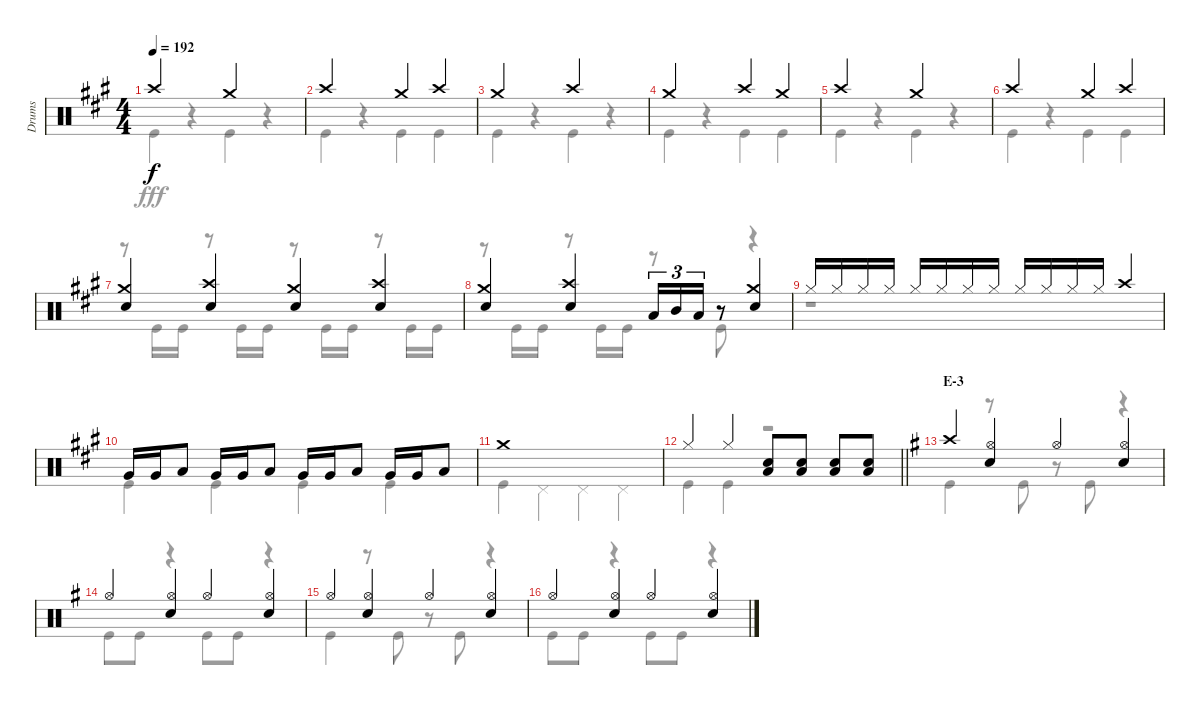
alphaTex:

\track ("Drums" "Drums") {instrument percussion}
\staff {score}
\articulation defaults
\voice
\ts (4 4)
\tempo 192
\clef neutral
\ks a "Crash high (hit)".2{dy f} "Crash medium (hit)".2
|
"Crash high (hit)".2 "Crash medium (hit)".4 "Crash high (hit)".4 |
"Crash medium (hit)".2 "Crash high (hit)".2 |
"Crash medium (hit)".2 "Crash high (hit)".4 "Crash medium (hit)".4 |
"Crash high (hit)".2 "Crash medium (hit)".2 |
"Crash high (hit)".2 "Crash medium (hit)".4 "Crash high (hit)".4 |
("Crash medium (hit)" "Snare (hit) 2").4 ("Crash high (hit)" "Snare (hit) 2").4 ("Crash medium (hit)" "Snare (hit) 2").4 ("Crash high (hit)" "Snare (hit) 2").4 |
("Crash medium (hit)" "Snare (hit) 2").4 ("Crash high (hit)" "Snare (hit) 2").4 "Low Tom (hit)".16{tu (3 2)} "Mid Tom (hit)".16{tu (3 2)} "Low Tom (hit)".16{tu (3 2)} r.8 ("Crash medium (hit)" "Snare (hit) 2").4 |
"Hi-Hat (closed)".16 "Hi-Hat (closed)".16 "Hi-Hat (closed)".16 "Hi-Hat (closed)".16 "Hi-Hat (closed)".16 "Hi-Hat (closed)".16 "Hi-Hat (closed)".16 "Hi-Hat (closed)".16 "Hi-Hat (closed)".16 "Hi-Hat (closed)".16 "Hi-Hat (closed)".16 "Hi-Hat (closed)".16 "Crash high (hit)".4 |
"Very Low Tom (hit)".16 "Very Low Tom (hit)".16 "Low Tom (hit)".8 "Very Low Tom (hit)".16 "Very Low Tom (hit)".16 "Low Tom (hit)".8 "Very Low Tom (hit)".16 "Very Low Tom (hit)".16 "Low Tom (hit)".8 "Very Low Tom (hit)".16 "Very Low Tom (hit)".16 "Low Tom (hit)".8 |
"Crash medium (hit)".1 |
\barLineRight lightlight "Hi-Hat (closed)".4 "Hi-Hat (closed)".4
("Snare (hit) 2" "Low Tom (hit)").8 ("Snare (hit) 2" "Low Tom (hit)").8 ("Snare (hit) 2" "Low Tom (hit)").8 ("Snare (hit) 2" "Low Tom (hit)").8 |
\section ("" "E-3")
\ks g "Crash high (hit)".4
("Hi-Hat (open)" "Snare (hit) 2").4 "Hi-Hat (open)".4 ("Hi-Hat (open)" "Snare (hit) 2").4 |
"Hi-Hat (open)".4 ("Hi-Hat (open)" "Snare (hit) 2").4 "Hi-Hat (open)".4 ("Hi-Hat (open)" "Snare (hit) 2").4 |
"Hi-Hat (open)".4 ("Hi-Hat (open)" "Snare (hit) 2").4 "Hi-Hat (open)".4 ("Hi-Hat (open)" "Snare (hit) 2").4 |
"Hi-Hat (open)".4 ("Hi-Hat (open)" "Snare (hit) 2").4 "Hi-Hat (open)".4 ("Hi-Hat (open)" "Snare (hit) 2").4
\voice
\clef neutral
\ottava regular
\simile none
\ks a "Kick (hit)".4{dy fff}
r.4 "Kick (hit)".4 r.4 |
"Kick (hit)".4 r.4 "Kick (hit)".4 "Kick (hit)".4 |
"Kick (hit)".4 r.4 "Kick (hit)".4 r.4 |
"Kick (hit)".4 r.4 "Kick (hit)".4 "Kick (hit)".4 |
"Kick (hit)".4 r.4 "Kick (hit)".4 r.4 |
"Kick (hit)".4 r.4 "Kick (hit)".4 "Kick (hit)".4 |
r.8 "Kick (hit)".16 "Kick (hit)".16 r.8 "Kick (hit)".16 "Kick (hit)".16 r.8 "Kick (hit)".16 "Kick (hit)".16 r.8 "Kick (hit)".16 "Kick (hit)".16 |
r.8 "Kick (hit)".16 "Kick (hit)".16 r.8 "Kick (hit)".16 "Kick (hit)".16 r.8 "Kick (hit)".8 r.4 |
r.1 |
"Kick (hit)".4 "Kick (hit)".4 "Kick (hit)".4 "Kick (hit)".4 |
"Kick (hit)".4 "Pedal Hi-Hat (hit)".4 "Pedal Hi-Hat (hit)".4 "Pedal Hi-Hat (hit)".4 |
\barLineRight lightlight "Kick (hit)".4 "Kick (hit)".4
r.2 |
\ks g "Kick (hit)".4
r.8 "Kick (hit)".8 r.8 "Kick (hit)".8 r.4 |
"Kick (hit)".8 "Kick (hit)".8 r.4 "Kick (hit)".8 "Kick (hit)".8 r.4 |
"Kick (hit)".4 r.8 "Kick (hit)".8 r.8 "Kick (hit)".8 r.4 |
"Kick (hit)".8 "Kick (hit)".8 r.4 "Kick (hit)".8 "Kick (hit)".8 r.4
